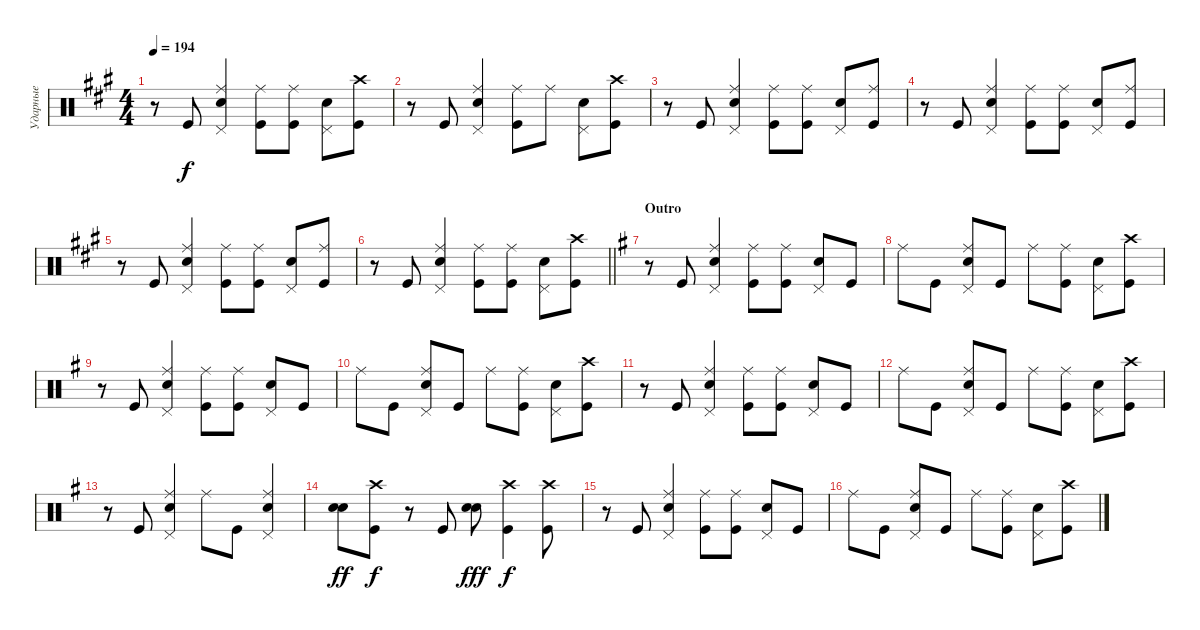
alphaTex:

\track ("Ударные" "Ударные") {instrument percussion}
\staff {score}
\articulation defaults
\ts (4 4)
\tempo 194
\clef neutral
\ks f#minor
r.8{dy f} "Kick (hit)".8 ("Snare (hit) 2" "Ride (middle)" "Pedal Hi-Hat (hit)").4 ("Kick (hit)" "Ride (middle)").8 ("Kick (hit)" "Ride (middle)").8 ("Snare (hit) 2" "Pedal Hi-Hat (hit)").8 ("Kick (hit)" "Crash high (hit)").8 |
r.8 "Kick (hit)".8 ("Snare (hit) 2" "Ride (middle)" "Pedal Hi-Hat (hit)").4 ("Kick (hit)" "Ride (middle)").8 "Ride (middle)".8 ("Snare (hit) 2" "Pedal Hi-Hat (hit)").8 ("Kick (hit)" "Crash high (hit)").8 |
r.8 "Kick (hit)".8 ("Snare (hit) 2" "Ride (middle)" "Pedal Hi-Hat (hit)").4 ("Kick (hit)" "Ride (middle)").8 ("Kick (hit)" "Ride (middle)").8 ("Snare (hit) 2" "Pedal Hi-Hat (hit)").8 ("Ride (middle)" "Kick (hit)").8 |
r.8 "Kick (hit)".8 ("Snare (hit) 2" "Ride (middle)" "Pedal Hi-Hat (hit)").4 ("Kick (hit)" "Ride (middle)").8 ("Kick (hit)" "Ride (middle)").8 ("Snare (hit) 2" "Pedal Hi-Hat (hit)").8 ("Ride (middle)" "Kick (hit)").8 |
r.8 "Kick (hit)".8 ("Snare (hit) 2" "Ride (middle)" "Pedal Hi-Hat (hit)").4 ("Kick (hit)" "Ride (middle)").8 ("Kick (hit)" "Ride (middle)").8 ("Snare (hit) 2" "Pedal Hi-Hat (hit)").8 ("Ride (middle)" "Kick (hit)").8 |
\barLineRight lightlight
r.8 "Kick (hit)".8 ("Snare (hit) 2" "Ride (middle)" "Pedal Hi-Hat (hit)").4 ("Kick (hit)" "Ride (middle)").8 ("Kick (hit)" "Ride (middle)").8 ("Snare (hit) 2" "Pedal Hi-Hat (hit)").8 ("Crash high (hit)" "Kick (hit)").8 |
\section ("" "Outro")
\ks eminor
r.8 "Kick (hit)".8 ("Ride (middle)" "Snare (hit) 2" "Pedal Hi-Hat (hit)").4 ("Ride (middle)" "Kick (hit)").8 ("Ride (middle)" "Kick (hit)").8 ("Pedal Hi-Hat (hit)" "Snare (hit) 2").8 "Kick (hit)".8 |
"Ride (middle)".8 "Kick (hit)".8 ("Ride (middle)" "Snare (hit) 2" "Pedal Hi-Hat (hit)").8 "Kick (hit)".8 "Ride (middle)".8 ("Ride (middle)" "Kick (hit)").8 ("Pedal Hi-Hat (hit)" "Snare (hit) 2").8 ("Crash high (hit)" "Kick (hit)").8 |
r.8 "Kick (hit)".8 ("Ride (middle)" "Snare (hit) 2" "Pedal Hi-Hat (hit)").4 ("Ride (middle)" "Kick (hit)").8 ("Ride (middle)" "Kick (hit)").8 ("Pedal Hi-Hat (hit)" "Snare (hit) 2").8 "Kick (hit)".8 |
"Ride (middle)".8 "Kick (hit)".8 ("Ride (middle)" "Snare (hit) 2" "Pedal Hi-Hat (hit)").8 "Kick (hit)".8 "Ride (middle)".8 ("Ride (middle)" "Kick (hit)").8 ("Pedal Hi-Hat (hit)" "Snare (hit) 2").8 ("Crash high (hit)" "Kick (hit)").8 |
r.8 "Kick (hit)".8 ("Ride (middle)" "Snare (hit) 2" "Pedal Hi-Hat (hit)").4 ("Ride (middle)" "Kick (hit)").8 ("Ride (middle)" "Kick (hit)").8 ("Pedal Hi-Hat (hit)" "Snare (hit) 2").8 "Kick (hit)".8 |
"Ride (middle)".8 "Kick (hit)".8 ("Ride (middle)" "Snare (hit) 2" "Pedal Hi-Hat (hit)").8 "Kick (hit)".8 "Ride (middle)".8 ("Ride (middle)" "Kick (hit)").8 ("Pedal Hi-Hat (hit)" "Snare (hit) 2").8 ("Crash high (hit)" "Kick (hit)").8 |
r.8 "Kick (hit)".8 ("Ride (middle)" "Snare (hit) 2" "Pedal Hi-Hat (hit)").4 "Ride (middle)".8 "Kick (hit)".8 ("Pedal Hi-Hat (hit)" "Snare (hit) 2" "Ride (middle)").4 |
("Snare (hit) 2" "Snare (hit) 2").8{bd 240 dy ff} ("Kick (hit)" "Crash high (hit)").8{dy f} r.8 "Kick (hit)".8 ("Snare (hit) 2" "Snare (hit) 2").8{bd 240 dy fff} ("Kick (hit)" "Crash high (hit)").4{dy f} ("Kick (hit)" "Crash high (hit)").8 |
r.8 "Kick (hit)".8 ("Ride (middle)" "Snare (hit) 2" "Pedal Hi-Hat (hit)").4 ("Ride (middle)" "Kick (hit)").8 ("Ride (middle)" "Kick (hit)").8 ("Pedal Hi-Hat (hit)" "Snare (hit) 2").8 "Kick (hit)".8 |
"Ride (middle)".8 "Kick (hit)".8 ("Ride (middle)" "Snare (hit) 2" "Pedal Hi-Hat (hit)").8 "Kick (hit)".8 "Ride (middle)".8 ("Ride (middle)" "Kick (hit)").8 ("Pedal Hi-Hat (hit)" "Snare (hit) 2").8 ("Crash high (hit)" "Kick (hit)").8
